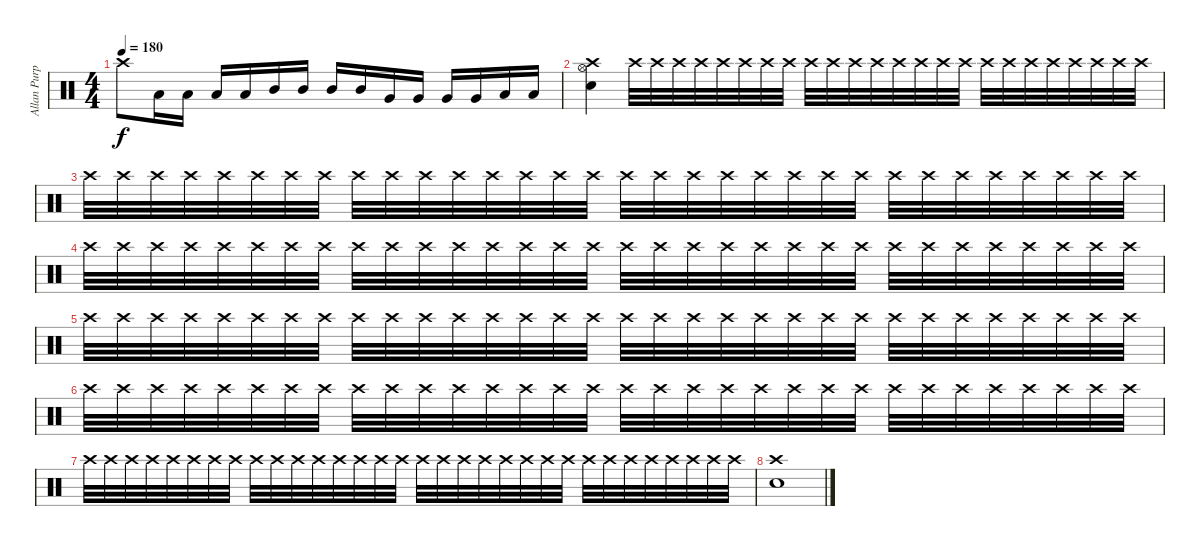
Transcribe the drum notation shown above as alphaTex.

\track ("Allan Purple" "Allan Purp") {instrument percussion}
\staff {score}
\articulation defaults
\ts (4 4)
\tempo 180
\clef neutral
\ks c "Crash high (hit)".8{dy f} "Low Tom (hit)".16 "Low Tom (hit)".16 "Low Tom (hit)".16 "Low Tom (hit)".16 "Mid Tom (hit)".16 "Mid Tom (hit)".16 "Mid Tom (hit)".16 "Mid Tom (hit)".16 "Very Low Tom (hit)".16 "Very Low Tom (hit)".16 "Very Low Tom (hit)".16 "Very Low Tom (hit)".16 "Low Floor Tom (hit)".16 "Low Floor Tom (hit)".16
|
("Crash high (hit)" "Hi-Hat (open)" "Snare (hit) 2").4 "Crash high (hit)".32 "Crash high (hit)".32 "Crash high (hit)".32 "Crash high (hit)".32 "Crash high (hit)".32 "Crash high (hit)".32 "Crash high (hit)".32 "Crash high (hit)".32 "Crash high (hit)".32 "Crash high (hit)".32 "Crash high (hit)".32 "Crash high (hit)".32 "Crash high (hit)".32 "Crash high (hit)".32 "Crash high (hit)".32 "Crash high (hit)".32 "Crash high (hit)".32 "Crash high (hit)".32 "Crash high (hit)".32 "Crash high (hit)".32 "Crash high (hit)".32 "Crash high (hit)".32 "Crash high (hit)".32 "Crash high (hit)".32 |
"Crash high (hit)".32 "Crash high (hit)".32 "Crash high (hit)".32 "Crash high (hit)".32 "Crash high (hit)".32 "Crash high (hit)".32 "Crash high (hit)".32 "Crash high (hit)".32 "Crash high (hit)".32 "Crash high (hit)".32 "Crash high (hit)".32 "Crash high (hit)".32 "Crash high (hit)".32 "Crash high (hit)".32 "Crash high (hit)".32 "Crash high (hit)".32 "Crash high (hit)".32 "Crash high (hit)".32 "Crash high (hit)".32 "Crash high (hit)".32 "Crash high (hit)".32 "Crash high (hit)".32 "Crash high (hit)".32 "Crash high (hit)".32 "Crash high (hit)".32 "Crash high (hit)".32 "Crash high (hit)".32 "Crash high (hit)".32 "Crash high (hit)".32 "Crash high (hit)".32 "Crash high (hit)".32 "Crash high (hit)".32 |
"Crash high (hit)".32 "Crash high (hit)".32 "Crash high (hit)".32 "Crash high (hit)".32 "Crash high (hit)".32 "Crash high (hit)".32 "Crash high (hit)".32 "Crash high (hit)".32 "Crash high (hit)".32 "Crash high (hit)".32 "Crash high (hit)".32 "Crash high (hit)".32 "Crash high (hit)".32 "Crash high (hit)".32 "Crash high (hit)".32 "Crash high (hit)".32 "Crash high (hit)".32 "Crash high (hit)".32 "Crash high (hit)".32 "Crash high (hit)".32 "Crash high (hit)".32 "Crash high (hit)".32 "Crash high (hit)".32 "Crash high (hit)".32 "Crash high (hit)".32 "Crash high (hit)".32 "Crash high (hit)".32 "Crash high (hit)".32 "Crash high (hit)".32 "Crash high (hit)".32 "Crash high (hit)".32 "Crash high (hit)".32 |
"Crash high (hit)".32 "Crash high (hit)".32 "Crash high (hit)".32 "Crash high (hit)".32 "Crash high (hit)".32 "Crash high (hit)".32 "Crash high (hit)".32 "Crash high (hit)".32 "Crash high (hit)".32 "Crash high (hit)".32 "Crash high (hit)".32 "Crash high (hit)".32 "Crash high (hit)".32 "Crash high (hit)".32 "Crash high (hit)".32 "Crash high (hit)".32 "Crash high (hit)".32 "Crash high (hit)".32 "Crash high (hit)".32 "Crash high (hit)".32 "Crash high (hit)".32 "Crash high (hit)".32 "Crash high (hit)".32 "Crash high (hit)".32 "Crash high (hit)".32 "Crash high (hit)".32 "Crash high (hit)".32 "Crash high (hit)".32 "Crash high (hit)".32 "Crash high (hit)".32 "Crash high (hit)".32 "Crash high (hit)".32 |
"Crash high (hit)".32 "Crash high (hit)".32 "Crash high (hit)".32 "Crash high (hit)".32 "Crash high (hit)".32 "Crash high (hit)".32 "Crash high (hit)".32 "Crash high (hit)".32 "Crash high (hit)".32 "Crash high (hit)".32 "Crash high (hit)".32 "Crash high (hit)".32 "Crash high (hit)".32 "Crash high (hit)".32 "Crash high (hit)".32 "Crash high (hit)".32 "Crash high (hit)".32 "Crash high (hit)".32 "Crash high (hit)".32 "Crash high (hit)".32 "Crash high (hit)".32 "Crash high (hit)".32 "Crash high (hit)".32 "Crash high (hit)".32 "Crash high (hit)".32 "Crash high (hit)".32 "Crash high (hit)".32 "Crash high (hit)".32 "Crash high (hit)".32 "Crash high (hit)".32 "Crash high (hit)".32 "Crash high (hit)".32 |
"Crash high (hit)".32 "Crash high (hit)".32 "Crash high (hit)".32 "Crash high (hit)".32 "Crash high (hit)".32 "Crash high (hit)".32 "Crash high (hit)".32 "Crash high (hit)".32 "Crash high (hit)".32 "Crash high (hit)".32 "Crash high (hit)".32 "Crash high (hit)".32 "Crash high (hit)".32 "Crash high (hit)".32 "Crash high (hit)".32 "Crash high (hit)".32 "Crash high (hit)".32 "Crash high (hit)".32 "Crash high (hit)".32 "Crash high (hit)".32 "Crash high (hit)".32 "Crash high (hit)".32 "Crash high (hit)".32 "Crash high (hit)".32 "Crash high (hit)".32 "Crash high (hit)".32 "Crash high (hit)".32 "Crash high (hit)".32 "Crash high (hit)".32 "Crash high (hit)".32 "Crash high (hit)".32 "Crash high (hit)".32 |
("Crash high (hit)" "Snare (hit) 2").1
